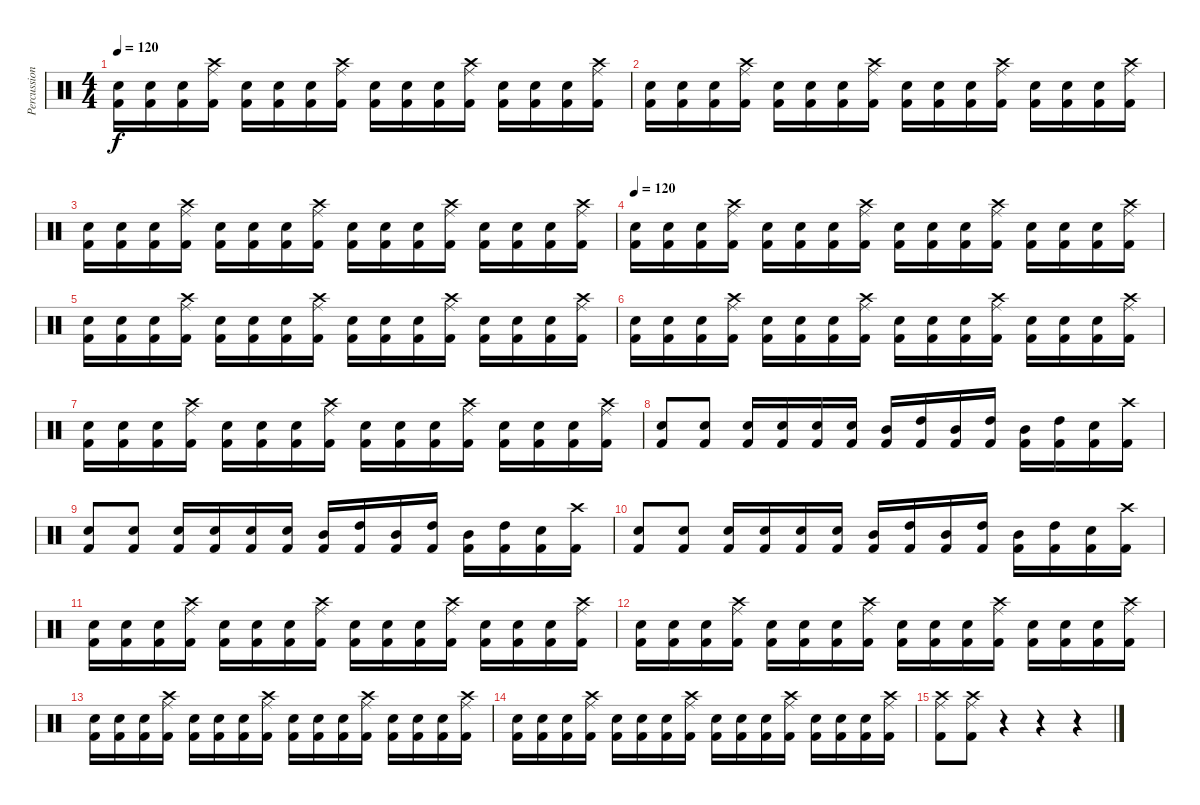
\track ("Percussion" "Percussion") {instrument percussion}
\staff {score}
\articulation defaults
\ts (4 4)
\tempo 120
\clef neutral
\ks c
("Electric Snare (hit)" "Kick (hit) 2").16{dy f} ("Electric Snare (hit)" "Kick (hit) 2").16 ("Electric Snare (hit)" "Kick (hit) 2").16 ("Ride (middle)" "Crash high (hit)" "Kick (hit) 2").16 ("Electric Snare (hit)" "Kick (hit) 2").16 ("Electric Snare (hit)" "Kick (hit) 2").16 ("Electric Snare (hit)" "Kick (hit) 2").16 ("Ride (middle)" "Crash high (hit)" "Kick (hit) 2").16 ("Electric Snare (hit)" "Kick (hit) 2").16 ("Electric Snare (hit)" "Kick (hit) 2").16 ("Electric Snare (hit)" "Kick (hit) 2").16 ("Ride (middle)" "Crash high (hit)" "Kick (hit) 2").16 ("Electric Snare (hit)" "Kick (hit) 2").16 ("Electric Snare (hit)" "Kick (hit) 2").16 ("Electric Snare (hit)" "Kick (hit) 2").16 ("Ride (middle)" "Crash high (hit)" "Kick (hit) 2").16 |
("Electric Snare (hit)" "Kick (hit) 2").16 ("Electric Snare (hit)" "Kick (hit) 2").16 ("Electric Snare (hit)" "Kick (hit) 2").16 ("Ride (middle)" "Crash high (hit)" "Kick (hit) 2").16 ("Electric Snare (hit)" "Kick (hit) 2").16 ("Electric Snare (hit)" "Kick (hit) 2").16 ("Electric Snare (hit)" "Kick (hit) 2").16 ("Ride (middle)" "Crash high (hit)" "Kick (hit) 2").16 ("Electric Snare (hit)" "Kick (hit) 2").16 ("Electric Snare (hit)" "Kick (hit) 2").16 ("Electric Snare (hit)" "Kick (hit) 2").16 ("Ride (middle)" "Crash high (hit)" "Kick (hit) 2").16 ("Electric Snare (hit)" "Kick (hit) 2").16 ("Electric Snare (hit)" "Kick (hit) 2").16 ("Electric Snare (hit)" "Kick (hit) 2").16 ("Ride (middle)" "Crash high (hit)" "Kick (hit) 2").16 |
("Electric Snare (hit)" "Kick (hit) 2").16 ("Electric Snare (hit)" "Kick (hit) 2").16 ("Electric Snare (hit)" "Kick (hit) 2").16 ("Ride (middle)" "Crash high (hit)" "Kick (hit) 2").16 ("Electric Snare (hit)" "Kick (hit) 2").16 ("Electric Snare (hit)" "Kick (hit) 2").16 ("Electric Snare (hit)" "Kick (hit) 2").16 ("Ride (middle)" "Crash high (hit)" "Kick (hit) 2").16 ("Electric Snare (hit)" "Kick (hit) 2").16 ("Electric Snare (hit)" "Kick (hit) 2").16 ("Electric Snare (hit)" "Kick (hit) 2").16 ("Ride (middle)" "Crash high (hit)" "Kick (hit) 2").16 ("Electric Snare (hit)" "Kick (hit) 2").16 ("Electric Snare (hit)" "Kick (hit) 2").16 ("Electric Snare (hit)" "Kick (hit) 2").16 ("Ride (middle)" "Crash high (hit)" "Kick (hit) 2").16 |
\tempo 120
("Electric Snare (hit)" "Kick (hit) 2").16 ("Electric Snare (hit)" "Kick (hit) 2").16 ("Electric Snare (hit)" "Kick (hit) 2").16 ("Ride (middle)" "Crash high (hit)" "Kick (hit) 2").16 ("Electric Snare (hit)" "Kick (hit) 2").16 ("Electric Snare (hit)" "Kick (hit) 2").16 ("Electric Snare (hit)" "Kick (hit) 2").16 ("Ride (middle)" "Crash high (hit)" "Kick (hit) 2").16 ("Electric Snare (hit)" "Kick (hit) 2").16 ("Electric Snare (hit)" "Kick (hit) 2").16 ("Electric Snare (hit)" "Kick (hit) 2").16 ("Ride (middle)" "Crash high (hit)" "Kick (hit) 2").16 ("Electric Snare (hit)" "Kick (hit) 2").16 ("Electric Snare (hit)" "Kick (hit) 2").16 ("Electric Snare (hit)" "Kick (hit) 2").16 ("Ride (middle)" "Crash high (hit)" "Kick (hit) 2").16 |
("Electric Snare (hit)" "Kick (hit) 2").16 ("Electric Snare (hit)" "Kick (hit) 2").16 ("Electric Snare (hit)" "Kick (hit) 2").16 ("Ride (middle)" "Crash high (hit)" "Kick (hit) 2").16 ("Electric Snare (hit)" "Kick (hit) 2").16 ("Electric Snare (hit)" "Kick (hit) 2").16 ("Electric Snare (hit)" "Kick (hit) 2").16 ("Ride (middle)" "Crash high (hit)" "Kick (hit) 2").16 ("Electric Snare (hit)" "Kick (hit) 2").16 ("Electric Snare (hit)" "Kick (hit) 2").16 ("Electric Snare (hit)" "Kick (hit) 2").16 ("Ride (middle)" "Crash high (hit)" "Kick (hit) 2").16 ("Electric Snare (hit)" "Kick (hit) 2").16 ("Electric Snare (hit)" "Kick (hit) 2").16 ("Electric Snare (hit)" "Kick (hit) 2").16 ("Ride (middle)" "Crash high (hit)" "Kick (hit) 2").16 |
("Electric Snare (hit)" "Kick (hit) 2").16 ("Electric Snare (hit)" "Kick (hit) 2").16 ("Electric Snare (hit)" "Kick (hit) 2").16 ("Ride (middle)" "Crash high (hit)" "Kick (hit) 2").16 ("Electric Snare (hit)" "Kick (hit) 2").16 ("Electric Snare (hit)" "Kick (hit) 2").16 ("Electric Snare (hit)" "Kick (hit) 2").16 ("Ride (middle)" "Crash high (hit)" "Kick (hit) 2").16 ("Electric Snare (hit)" "Kick (hit) 2").16 ("Electric Snare (hit)" "Kick (hit) 2").16 ("Electric Snare (hit)" "Kick (hit) 2").16 ("Ride (middle)" "Crash high (hit)" "Kick (hit) 2").16 ("Electric Snare (hit)" "Kick (hit) 2").16 ("Electric Snare (hit)" "Kick (hit) 2").16 ("Electric Snare (hit)" "Kick (hit) 2").16 ("Ride (middle)" "Crash high (hit)" "Kick (hit) 2").16 |
("Electric Snare (hit)" "Kick (hit) 2").16 ("Electric Snare (hit)" "Kick (hit) 2").16 ("Electric Snare (hit)" "Kick (hit) 2").16 ("Ride (middle)" "Crash high (hit)" "Kick (hit) 2").16 ("Electric Snare (hit)" "Kick (hit) 2").16 ("Electric Snare (hit)" "Kick (hit) 2").16 ("Electric Snare (hit)" "Kick (hit) 2").16 ("Ride (middle)" "Crash high (hit)" "Kick (hit) 2").16 ("Electric Snare (hit)" "Kick (hit) 2").16 ("Electric Snare (hit)" "Kick (hit) 2").16 ("Electric Snare (hit)" "Kick (hit) 2").16 ("Ride (middle)" "Crash high (hit)" "Kick (hit) 2").16 ("Electric Snare (hit)" "Kick (hit) 2").16 ("Electric Snare (hit)" "Kick (hit) 2").16 ("Electric Snare (hit)" "Kick (hit) 2").16 ("Ride (middle)" "Crash high (hit)" "Kick (hit) 2").16 |
("Electric Snare (hit)" "Kick (hit) 2").8 ("Electric Snare (hit)" "Kick (hit) 2").8 ("Electric Snare (hit)" "Kick (hit) 2").16 ("Electric Snare (hit)" "Kick (hit) 2").16 ("Electric Snare (hit)" "Kick (hit) 2").16 ("Electric Snare (hit)" "Kick (hit) 2").16 ("Mid Tom (hit)" "Kick (hit) 2").16 ("High Tom (hit)" "Kick (hit) 2").16 ("Mid Tom (hit)" "Kick (hit) 2").16 ("High Tom (hit)" "Kick (hit) 2").16 ("Mid Tom (hit)" "Kick (hit) 2").16 ("High Tom (hit)" "Kick (hit) 2").16 ("Electric Snare (hit)" "Kick (hit) 2").16 ("Crash high (hit)" "Kick (hit) 2").16 |
("Electric Snare (hit)" "Kick (hit) 2").8 ("Electric Snare (hit)" "Kick (hit) 2").8 ("Electric Snare (hit)" "Kick (hit) 2").16 ("Electric Snare (hit)" "Kick (hit) 2").16 ("Electric Snare (hit)" "Kick (hit) 2").16 ("Electric Snare (hit)" "Kick (hit) 2").16 ("Mid Tom (hit)" "Kick (hit) 2").16 ("High Tom (hit)" "Kick (hit) 2").16 ("Mid Tom (hit)" "Kick (hit) 2").16 ("High Tom (hit)" "Kick (hit) 2").16 ("Mid Tom (hit)" "Kick (hit) 2").16 ("High Tom (hit)" "Kick (hit) 2").16 ("Electric Snare (hit)" "Kick (hit) 2").16 ("Crash high (hit)" "Kick (hit) 2").16 |
("Electric Snare (hit)" "Kick (hit) 2").8 ("Electric Snare (hit)" "Kick (hit) 2").8 ("Electric Snare (hit)" "Kick (hit) 2").16 ("Electric Snare (hit)" "Kick (hit) 2").16 ("Electric Snare (hit)" "Kick (hit) 2").16 ("Electric Snare (hit)" "Kick (hit) 2").16 ("Mid Tom (hit)" "Kick (hit) 2").16 ("High Tom (hit)" "Kick (hit) 2").16 ("Mid Tom (hit)" "Kick (hit) 2").16 ("High Tom (hit)" "Kick (hit) 2").16 ("Mid Tom (hit)" "Kick (hit) 2").16 ("High Tom (hit)" "Kick (hit) 2").16 ("Electric Snare (hit)" "Kick (hit) 2").16 ("Crash high (hit)" "Kick (hit) 2").16 |
("Electric Snare (hit)" "Kick (hit) 2").16 ("Electric Snare (hit)" "Kick (hit) 2").16 ("Electric Snare (hit)" "Kick (hit) 2").16 ("Ride (middle)" "Crash high (hit)" "Kick (hit) 2").16 ("Electric Snare (hit)" "Kick (hit) 2").16 ("Electric Snare (hit)" "Kick (hit) 2").16 ("Electric Snare (hit)" "Kick (hit) 2").16 ("Ride (middle)" "Crash high (hit)" "Kick (hit) 2").16 ("Electric Snare (hit)" "Kick (hit) 2").16 ("Electric Snare (hit)" "Kick (hit) 2").16 ("Electric Snare (hit)" "Kick (hit) 2").16 ("Ride (middle)" "Crash high (hit)" "Kick (hit) 2").16 ("Electric Snare (hit)" "Kick (hit) 2").16 ("Electric Snare (hit)" "Kick (hit) 2").16 ("Electric Snare (hit)" "Kick (hit) 2").16 ("Ride (middle)" "Crash high (hit)" "Kick (hit) 2").16 |
("Electric Snare (hit)" "Kick (hit) 2").16 ("Electric Snare (hit)" "Kick (hit) 2").16 ("Electric Snare (hit)" "Kick (hit) 2").16 ("Ride (middle)" "Crash high (hit)" "Kick (hit) 2").16 ("Electric Snare (hit)" "Kick (hit) 2").16 ("Electric Snare (hit)" "Kick (hit) 2").16 ("Electric Snare (hit)" "Kick (hit) 2").16 ("Ride (middle)" "Crash high (hit)" "Kick (hit) 2").16 ("Electric Snare (hit)" "Kick (hit) 2").16 ("Electric Snare (hit)" "Kick (hit) 2").16 ("Electric Snare (hit)" "Kick (hit) 2").16 ("Ride (middle)" "Crash high (hit)" "Kick (hit) 2").16 ("Electric Snare (hit)" "Kick (hit) 2").16 ("Electric Snare (hit)" "Kick (hit) 2").16 ("Electric Snare (hit)" "Kick (hit) 2").16 ("Ride (middle)" "Crash high (hit)" "Kick (hit) 2").16 |
("Electric Snare (hit)" "Kick (hit) 2").16 ("Electric Snare (hit)" "Kick (hit) 2").16 ("Electric Snare (hit)" "Kick (hit) 2").16 ("Ride (middle)" "Crash high (hit)" "Kick (hit) 2").16 ("Electric Snare (hit)" "Kick (hit) 2").16 ("Electric Snare (hit)" "Kick (hit) 2").16 ("Electric Snare (hit)" "Kick (hit) 2").16 ("Ride (middle)" "Crash high (hit)" "Kick (hit) 2").16 ("Electric Snare (hit)" "Kick (hit) 2").16 ("Electric Snare (hit)" "Kick (hit) 2").16 ("Electric Snare (hit)" "Kick (hit) 2").16 ("Ride (middle)" "Crash high (hit)" "Kick (hit) 2").16 ("Electric Snare (hit)" "Kick (hit) 2").16 ("Electric Snare (hit)" "Kick (hit) 2").16 ("Electric Snare (hit)" "Kick (hit) 2").16 ("Ride (middle)" "Crash high (hit)" "Kick (hit) 2").16 |
("Electric Snare (hit)" "Kick (hit) 2").16 ("Electric Snare (hit)" "Kick (hit) 2").16 ("Electric Snare (hit)" "Kick (hit) 2").16 ("Ride (middle)" "Crash high (hit)" "Kick (hit) 2").16 ("Electric Snare (hit)" "Kick (hit) 2").16 ("Electric Snare (hit)" "Kick (hit) 2").16 ("Electric Snare (hit)" "Kick (hit) 2").16 ("Ride (middle)" "Crash high (hit)" "Kick (hit) 2").16 ("Electric Snare (hit)" "Kick (hit) 2").16 ("Electric Snare (hit)" "Kick (hit) 2").16 ("Electric Snare (hit)" "Kick (hit) 2").16 ("Ride (middle)" "Crash high (hit)" "Kick (hit) 2").16 ("Electric Snare (hit)" "Kick (hit) 2").16 ("Electric Snare (hit)" "Kick (hit) 2").16 ("Electric Snare (hit)" "Kick (hit) 2").16 ("Ride (middle)" "Crash high (hit)" "Kick (hit) 2").16 |
("Ride (middle)" "Crash high (hit)" "Kick (hit) 2").8 ("Ride (middle)" "Crash high (hit)" "Kick (hit) 2").8 r.4 r.4 r.4
